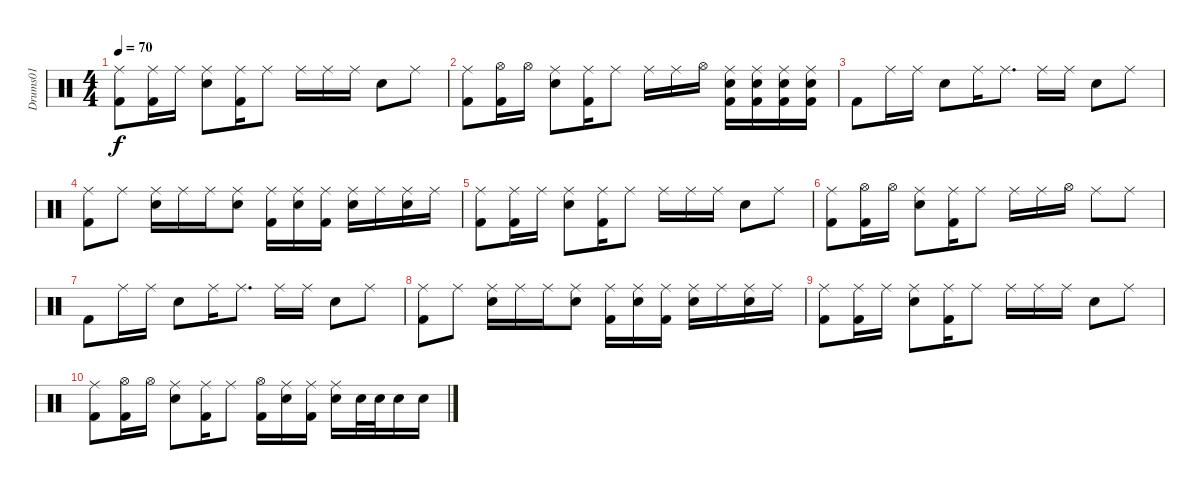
\track ("Drums01" "Drums01") {instrument percussion}
\staff {score}
\articulation defaults
\ts (4 4)
\tempo 70
\clef neutral
\ks c
("Ride (middle)" "Kick (hit) 2").8{dy f} ("Ride (middle)" "Kick (hit) 2").16 "Ride (middle)".16 ("Ride (middle)" "Snare (hit) 2").8 ("Ride (middle)" "Kick (hit) 2").16 "Ride (middle)".8 "Ride (middle)".16 "Ride (middle)".16 "Ride (middle)".16 "Snare (hit) 2".8 "Ride (middle)".8 |
("Ride (middle)" "Kick (hit) 2").8 ("Hi-Hat (open)" "Kick (hit) 2").16 "Hi-Hat (open)".16 ("Ride (middle)" "Snare (hit) 2").8 ("Ride (middle)" "Kick (hit) 2").16 "Ride (middle)".8 "Ride (middle)".16 "Ride (middle)".16 "Hi-Hat (open)".16 ("Ride (middle)" "Snare (hit) 2" "Kick (hit) 2").16 ("Ride (middle)" "Snare (hit) 2" "Kick (hit) 2").16 ("Ride (middle)" "Snare (hit) 2" "Kick (hit) 2").16 ("Ride (middle)" "Snare (hit) 2" "Kick (hit) 2").16 |
"Kick (hit) 2".8 "Ride (middle)".16 "Ride (middle)".16 "Snare (hit) 2".8 "Ride (middle)".16 "Ride (middle)".8{d} "Ride (middle)".16 "Ride (middle)".16 "Snare (hit) 2".8 "Ride (middle)".8 |
("Ride (middle)" "Kick (hit) 2").8 "Ride (middle)".8 ("Ride (middle)" "Snare (hit) 2").16 "Ride (middle)".16 "Ride (middle)".16 ("Ride (middle)" "Snare (hit) 2").8 ("Ride (middle)" "Kick (hit) 2").16 ("Ride (middle)" "Snare (hit) 2").16 ("Ride (middle)" "Kick (hit) 2").16 ("Ride (middle)" "Snare (hit) 2").16 "Ride (middle)".16 ("Ride (middle)" "Snare (hit) 2").16 "Ride (middle)".16 |
("Ride (middle)" "Kick (hit) 2").8 ("Ride (middle)" "Kick (hit) 2").16 "Ride (middle)".16 ("Ride (middle)" "Snare (hit) 2").8 ("Ride (middle)" "Kick (hit) 2").16 "Ride (middle)".8 "Ride (middle)".16 "Ride (middle)".16 "Ride (middle)".16 "Snare (hit) 2".8 "Ride (middle)".8 |
("Ride (middle)" "Kick (hit) 2").8 ("Hi-Hat (open)" "Kick (hit) 2").16 "Hi-Hat (open)".16 ("Ride (middle)" "Snare (hit) 2").8 ("Ride (middle)" "Kick (hit) 2").16 "Ride (middle)".8 "Ride (middle)".16 "Ride (middle)".16 "Hi-Hat (open)".16 "Ride (middle)".8 "Ride (middle)".8 |
"Kick (hit) 2".8 "Ride (middle)".16 "Ride (middle)".16 "Snare (hit) 2".8 "Ride (middle)".16 "Ride (middle)".8{d} "Ride (middle)".16 "Ride (middle)".16 "Snare (hit) 2".8 "Ride (middle)".8 |
("Ride (middle)" "Kick (hit) 2").8 "Ride (middle)".8 ("Ride (middle)" "Snare (hit) 2").16 "Ride (middle)".16 "Ride (middle)".16 ("Ride (middle)" "Snare (hit) 2").8 ("Ride (middle)" "Kick (hit) 2").16 ("Ride (middle)" "Snare (hit) 2").16 ("Ride (middle)" "Kick (hit) 2").16 ("Ride (middle)" "Snare (hit) 2").16 "Ride (middle)".16 ("Ride (middle)" "Snare (hit) 2").16 "Ride (middle)".16 |
("Ride (middle)" "Kick (hit) 2").8 ("Ride (middle)" "Kick (hit) 2").16 "Ride (middle)".16 ("Ride (middle)" "Snare (hit) 2").8 ("Ride (middle)" "Kick (hit) 2").16 "Ride (middle)".8 "Ride (middle)".16 "Ride (middle)".16 "Ride (middle)".16 "Snare (hit) 2".8 "Ride (middle)".8 |
("Ride (middle)" "Kick (hit) 2").8 ("Hi-Hat (open)" "Kick (hit) 2").16 "Hi-Hat (open)".16 ("Ride (middle)" "Snare (hit) 2").8 ("Ride (middle)" "Kick (hit) 2").16 "Ride (middle)".8 ("Hi-Hat (open)" "Kick (hit) 2").16 ("Ride (middle)" "Snare (hit) 2").16 ("Ride (middle)" "Kick (hit) 2").16 ("Ride (middle)" "Snare (hit) 2").16 "Snare (hit) 2".32 "Snare (hit) 2".32 "Snare (hit) 2".16 "Snare (hit) 2".16
